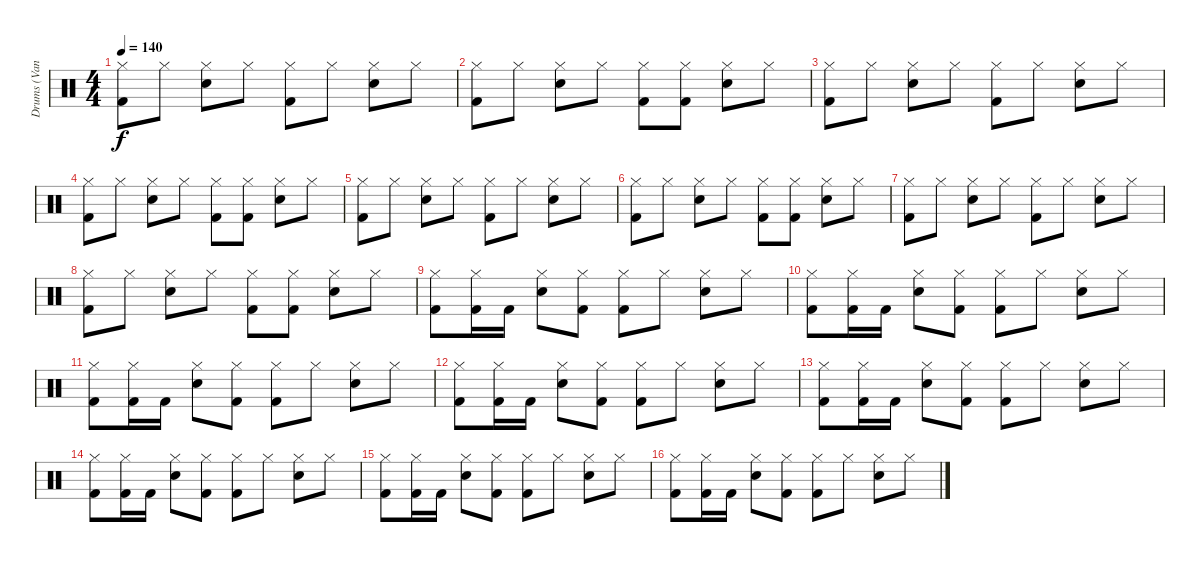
\track ("Drums (Vandel)" "Drums (Van") {instrument percussion}
\staff {score}
\articulation defaults
\ts (4 4)
\tempo 140
\clef neutral
\ks c
("Hi-Hat (closed)" "Kick (hit) 2").8{dy f} "Hi-Hat (closed)".8 ("Hi-Hat (closed)" "Snare (hit) 2").8 "Hi-Hat (closed)".8 ("Hi-Hat (closed)" "Kick (hit) 2").8 "Hi-Hat (closed)".8 ("Hi-Hat (closed)" "Snare (hit) 2").8 "Hi-Hat (closed)".8 |
("Hi-Hat (closed)" "Kick (hit) 2").8 "Hi-Hat (closed)".8 ("Hi-Hat (closed)" "Snare (hit) 2").8 "Hi-Hat (closed)".8 ("Hi-Hat (closed)" "Kick (hit) 2").8 ("Hi-Hat (closed)" "Kick (hit) 2").8 ("Hi-Hat (closed)" "Snare (hit) 2").8 "Hi-Hat (closed)".8 |
("Hi-Hat (closed)" "Kick (hit) 2").8 "Hi-Hat (closed)".8 ("Hi-Hat (closed)" "Snare (hit) 2").8 "Hi-Hat (closed)".8 ("Hi-Hat (closed)" "Kick (hit) 2").8 "Hi-Hat (closed)".8 ("Hi-Hat (closed)" "Snare (hit) 2").8 "Hi-Hat (closed)".8 |
("Hi-Hat (closed)" "Kick (hit) 2").8 "Hi-Hat (closed)".8 ("Hi-Hat (closed)" "Snare (hit) 2").8 "Hi-Hat (closed)".8 ("Hi-Hat (closed)" "Kick (hit) 2").8 ("Hi-Hat (closed)" "Kick (hit) 2").8 ("Hi-Hat (closed)" "Snare (hit) 2").8 "Hi-Hat (closed)".8 |
("Hi-Hat (closed)" "Kick (hit) 2").8 "Hi-Hat (closed)".8 ("Hi-Hat (closed)" "Snare (hit) 2").8 "Hi-Hat (closed)".8 ("Hi-Hat (closed)" "Kick (hit) 2").8 "Hi-Hat (closed)".8 ("Hi-Hat (closed)" "Snare (hit) 2").8 "Hi-Hat (closed)".8 |
("Hi-Hat (closed)" "Kick (hit) 2").8 "Hi-Hat (closed)".8 ("Hi-Hat (closed)" "Snare (hit) 2").8 "Hi-Hat (closed)".8 ("Hi-Hat (closed)" "Kick (hit) 2").8 ("Hi-Hat (closed)" "Kick (hit) 2").8 ("Hi-Hat (closed)" "Snare (hit) 2").8 "Hi-Hat (closed)".8 |
("Hi-Hat (closed)" "Kick (hit) 2").8 "Hi-Hat (closed)".8 ("Hi-Hat (closed)" "Snare (hit) 2").8 "Hi-Hat (closed)".8 ("Hi-Hat (closed)" "Kick (hit) 2").8 "Hi-Hat (closed)".8 ("Hi-Hat (closed)" "Snare (hit) 2").8 "Hi-Hat (closed)".8 |
("Hi-Hat (closed)" "Kick (hit) 2").8 "Hi-Hat (closed)".8 ("Hi-Hat (closed)" "Snare (hit) 2").8 "Hi-Hat (closed)".8 ("Hi-Hat (closed)" "Kick (hit) 2").8 ("Hi-Hat (closed)" "Kick (hit) 2").8 ("Hi-Hat (closed)" "Snare (hit) 2").8 "Hi-Hat (closed)".8 |
("Hi-Hat (closed)" "Kick (hit) 2").8 ("Hi-Hat (closed)" "Kick (hit) 2").16 "Kick (hit) 2".16 ("Hi-Hat (closed)" "Snare (hit) 2").8 ("Hi-Hat (closed)" "Kick (hit) 2").8 ("Hi-Hat (closed)" "Kick (hit) 2").8 "Hi-Hat (closed)".8 ("Hi-Hat (closed)" "Snare (hit) 2").8 "Hi-Hat (closed)".8 |
("Hi-Hat (closed)" "Kick (hit) 2").8 ("Hi-Hat (closed)" "Kick (hit) 2").16 "Kick (hit) 2".16 ("Hi-Hat (closed)" "Snare (hit) 2").8 ("Hi-Hat (closed)" "Kick (hit) 2").8 ("Hi-Hat (closed)" "Kick (hit) 2").8 "Hi-Hat (closed)".8 ("Hi-Hat (closed)" "Snare (hit) 2").8 "Hi-Hat (closed)".8 |
("Hi-Hat (closed)" "Kick (hit) 2").8 ("Hi-Hat (closed)" "Kick (hit) 2").16 "Kick (hit) 2".16 ("Hi-Hat (closed)" "Snare (hit) 2").8 ("Hi-Hat (closed)" "Kick (hit) 2").8 ("Hi-Hat (closed)" "Kick (hit) 2").8 "Hi-Hat (closed)".8 ("Hi-Hat (closed)" "Snare (hit) 2").8 "Hi-Hat (closed)".8 |
("Hi-Hat (closed)" "Kick (hit) 2").8 ("Hi-Hat (closed)" "Kick (hit) 2").16 "Kick (hit) 2".16 ("Hi-Hat (closed)" "Snare (hit) 2").8 ("Hi-Hat (closed)" "Kick (hit) 2").8 ("Hi-Hat (closed)" "Kick (hit) 2").8 "Hi-Hat (closed)".8 ("Hi-Hat (closed)" "Snare (hit) 2").8 "Hi-Hat (closed)".8 |
("Hi-Hat (closed)" "Kick (hit) 2").8 ("Hi-Hat (closed)" "Kick (hit) 2").16 "Kick (hit) 2".16 ("Hi-Hat (closed)" "Snare (hit) 2").8 ("Hi-Hat (closed)" "Kick (hit) 2").8 ("Hi-Hat (closed)" "Kick (hit) 2").8 "Hi-Hat (closed)".8 ("Hi-Hat (closed)" "Snare (hit) 2").8 "Hi-Hat (closed)".8 |
("Hi-Hat (closed)" "Kick (hit) 2").8 ("Hi-Hat (closed)" "Kick (hit) 2").16 "Kick (hit) 2".16 ("Hi-Hat (closed)" "Snare (hit) 2").8 ("Hi-Hat (closed)" "Kick (hit) 2").8 ("Hi-Hat (closed)" "Kick (hit) 2").8 "Hi-Hat (closed)".8 ("Hi-Hat (closed)" "Snare (hit) 2").8 "Hi-Hat (closed)".8 |
("Hi-Hat (closed)" "Kick (hit) 2").8 ("Hi-Hat (closed)" "Kick (hit) 2").16 "Kick (hit) 2".16 ("Hi-Hat (closed)" "Snare (hit) 2").8 ("Hi-Hat (closed)" "Kick (hit) 2").8 ("Hi-Hat (closed)" "Kick (hit) 2").8 "Hi-Hat (closed)".8 ("Hi-Hat (closed)" "Snare (hit) 2").8 "Hi-Hat (closed)".8 |
("Hi-Hat (closed)" "Kick (hit) 2").8 ("Hi-Hat (closed)" "Kick (hit) 2").16 "Kick (hit) 2".16 ("Hi-Hat (closed)" "Snare (hit) 2").8 ("Hi-Hat (closed)" "Kick (hit) 2").8 ("Hi-Hat (closed)" "Kick (hit) 2").8 "Hi-Hat (closed)".8 ("Hi-Hat (closed)" "Snare (hit) 2").8 "Hi-Hat (closed)".8
